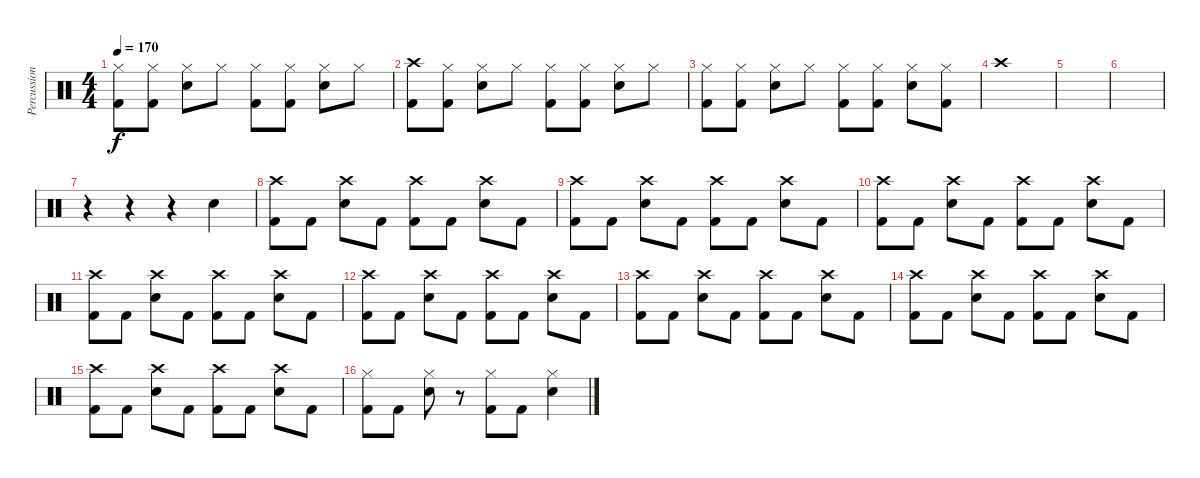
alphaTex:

\track ("Percussion" "Percussion") {instrument percussion}
\staff {score}
\articulation defaults
\ts (4 4)
\tempo 170
\clef neutral
\ks c
("Hi-Hat (closed)" "Kick (hit) 2").8{dy f} ("Hi-Hat (closed)" "Kick (hit) 2").8 ("Hi-Hat (closed)" "Snare (hit) 2").8 "Hi-Hat (closed)".8 ("Hi-Hat (closed)" "Kick (hit) 2").8 ("Hi-Hat (closed)" "Kick (hit) 2").8 ("Hi-Hat (closed)" "Snare (hit) 2").8 "Hi-Hat (closed)".8 |
("Crash high (hit)" "Kick (hit) 2").8 ("Hi-Hat (closed)" "Kick (hit) 2").8 ("Hi-Hat (closed)" "Snare (hit) 2").8 "Hi-Hat (closed)".8 ("Hi-Hat (closed)" "Kick (hit) 2").8 ("Hi-Hat (closed)" "Kick (hit) 2").8 ("Hi-Hat (closed)" "Snare (hit) 2").8 "Hi-Hat (closed)".8 |
("Hi-Hat (closed)" "Kick (hit) 2").8 ("Hi-Hat (closed)" "Kick (hit) 2").8 ("Hi-Hat (closed)" "Snare (hit) 2").8 "Hi-Hat (closed)".8 ("Hi-Hat (closed)" "Kick (hit) 2").8 ("Hi-Hat (closed)" "Kick (hit) 2").8 ("Hi-Hat (closed)" "Snare (hit) 2").8 ("Hi-Hat (closed)" "Kick (hit) 2").8 |
"Crash high (hit)".1 |
|
|
r.4 r.4 r.4 "Snare (hit) 2".4 |
("Crash high (hit)" "Kick (hit) 2").8 "Kick (hit) 2".8 ("Crash high (hit)" "Snare (hit) 2").8 "Kick (hit) 2".8 ("Crash high (hit)" "Kick (hit) 2").8 "Kick (hit) 2".8 ("Crash high (hit)" "Snare (hit) 2").8 "Kick (hit) 2".8 |
("Crash high (hit)" "Kick (hit) 2").8 "Kick (hit) 2".8 ("Crash high (hit)" "Snare (hit) 2").8 "Kick (hit) 2".8 ("Crash high (hit)" "Kick (hit) 2").8 "Kick (hit) 2".8 ("Crash high (hit)" "Snare (hit) 2").8 "Kick (hit) 2".8 |
("Crash high (hit)" "Kick (hit) 2").8 "Kick (hit) 2".8 ("Crash high (hit)" "Snare (hit) 2").8 "Kick (hit) 2".8 ("Crash high (hit)" "Kick (hit) 2").8 "Kick (hit) 2".8 ("Crash high (hit)" "Snare (hit) 2").8 "Kick (hit) 2".8 |
("Crash high (hit)" "Kick (hit) 2").8 "Kick (hit) 2".8 ("Crash high (hit)" "Snare (hit) 2").8 "Kick (hit) 2".8 ("Crash high (hit)" "Kick (hit) 2").8 "Kick (hit) 2".8 ("Crash high (hit)" "Snare (hit) 2").8 "Kick (hit) 2".8 |
("Crash high (hit)" "Kick (hit) 2").8 "Kick (hit) 2".8 ("Crash high (hit)" "Snare (hit) 2").8 "Kick (hit) 2".8 ("Crash high (hit)" "Kick (hit) 2").8 "Kick (hit) 2".8 ("Crash high (hit)" "Snare (hit) 2").8 "Kick (hit) 2".8 |
("Crash high (hit)" "Kick (hit) 2").8 "Kick (hit) 2".8 ("Crash high (hit)" "Snare (hit) 2").8 "Kick (hit) 2".8 ("Crash high (hit)" "Kick (hit) 2").8 "Kick (hit) 2".8 ("Crash high (hit)" "Snare (hit) 2").8 "Kick (hit) 2".8 |
("Crash high (hit)" "Kick (hit) 2").8 "Kick (hit) 2".8 ("Crash high (hit)" "Snare (hit) 2").8 "Kick (hit) 2".8 ("Crash high (hit)" "Kick (hit) 2").8 "Kick (hit) 2".8 ("Crash high (hit)" "Snare (hit) 2").8 "Kick (hit) 2".8 |
("Crash high (hit)" "Kick (hit) 2").8 "Kick (hit) 2".8 ("Crash high (hit)" "Snare (hit) 2").8 "Kick (hit) 2".8 ("Crash high (hit)" "Kick (hit) 2").8 "Kick (hit) 2".8 ("Crash high (hit)" "Snare (hit) 2").8 "Kick (hit) 2".8 |
("Hi-Hat (closed)" "Kick (hit) 2").8 "Kick (hit) 2".8 ("Hi-Hat (closed)" "Snare (hit) 2").8 r.8 ("Hi-Hat (closed)" "Kick (hit) 2").8 "Kick (hit) 2".8 ("Hi-Hat (closed)" "Snare (hit) 2").4
